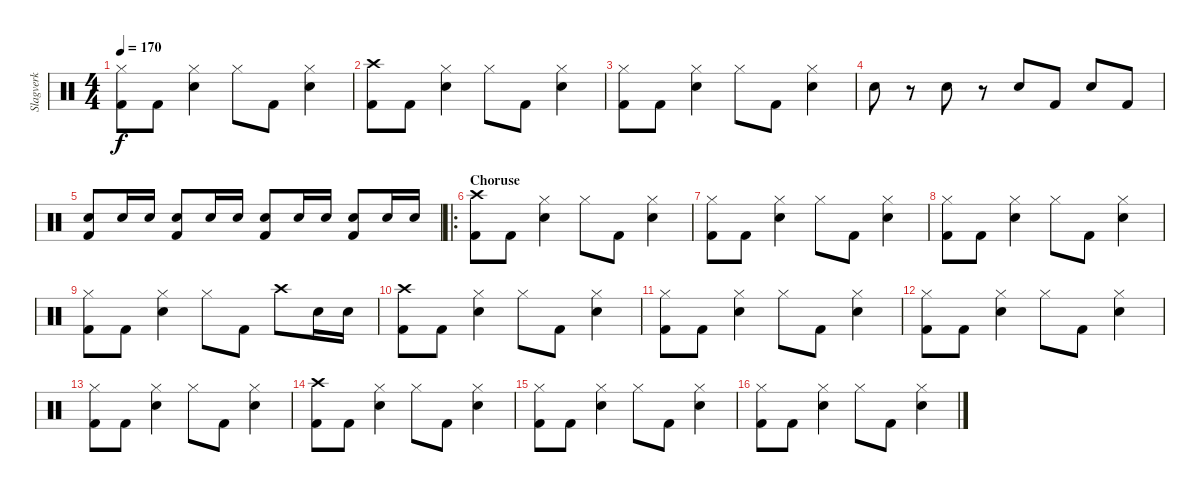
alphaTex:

\track ("Slagverk" "Slagverk") {instrument percussion}
\staff {score}
\articulation defaults
\ts (4 4)
\tempo 170
\clef neutral
\ks c
("Kick (hit) 2" "Hi-Hat (closed)").8{dy f} "Kick (hit) 2".8 ("Hi-Hat (closed)" "Snare (hit) 2").4 "Hi-Hat (closed)".8 "Kick (hit) 2".8 ("Hi-Hat (closed)" "Snare (hit) 2").4 |
("Kick (hit) 2" "Crash high (hit)").8 "Kick (hit) 2".8 ("Hi-Hat (closed)" "Snare (hit) 2").4 "Hi-Hat (closed)".8 "Kick (hit) 2".8 ("Hi-Hat (closed)" "Snare (hit) 2").4 |
("Kick (hit) 2" "Hi-Hat (closed)").8 "Kick (hit) 2".8 ("Hi-Hat (closed)" "Snare (hit) 2").4 "Hi-Hat (closed)".8 "Kick (hit) 2".8 ("Hi-Hat (closed)" "Snare (hit) 2").4 |
"Snare (hit) 2".8 r.8 "Snare (hit) 2".8 r.8 "Snare (hit) 2".8 "Kick (hit) 2".8 "Snare (hit) 2".8 "Kick (hit) 2".8 |
("Kick (hit) 2" "Snare (hit) 2").8 "Snare (hit) 2".16 "Snare (hit) 2".16 ("Kick (hit) 2" "Snare (hit) 2").8 "Snare (hit) 2".16 "Snare (hit) 2".16 ("Kick (hit) 2" "Snare (hit) 2").8 "Snare (hit) 2".16 "Snare (hit) 2".16 ("Kick (hit) 2" "Snare (hit) 2").8 "Snare (hit) 2".16 "Snare (hit) 2".16 |
\ro
\section ("" "Choruse")
("Kick (hit) 2" "Crash high (hit)").8 "Kick (hit) 2".8 ("Hi-Hat (closed)" "Snare (hit) 2").4 "Hi-Hat (closed)".8 "Kick (hit) 2".8 ("Hi-Hat (closed)" "Snare (hit) 2").4 |
("Kick (hit) 2" "Hi-Hat (closed)").8 "Kick (hit) 2".8 ("Hi-Hat (closed)" "Snare (hit) 2").4 "Hi-Hat (closed)".8 "Kick (hit) 2".8 ("Hi-Hat (closed)" "Snare (hit) 2").4 |
("Kick (hit) 2" "Hi-Hat (closed)").8 "Kick (hit) 2".8 ("Hi-Hat (closed)" "Snare (hit) 2").4 "Hi-Hat (closed)".8 "Kick (hit) 2".8 ("Hi-Hat (closed)" "Snare (hit) 2").4 |
("Kick (hit) 2" "Hi-Hat (closed)").8 "Kick (hit) 2".8 ("Hi-Hat (closed)" "Snare (hit) 2").4 "Hi-Hat (closed)".8 "Kick (hit) 2".8 "Crash high (hit)".8 "Snare (hit) 2".16 "Snare (hit) 2".16 |
("Kick (hit) 2" "Crash high (hit)").8 "Kick (hit) 2".8 ("Hi-Hat (closed)" "Snare (hit) 2").4 "Hi-Hat (closed)".8 "Kick (hit) 2".8 ("Hi-Hat (closed)" "Snare (hit) 2").4 |
("Kick (hit) 2" "Hi-Hat (closed)").8 "Kick (hit) 2".8 ("Hi-Hat (closed)" "Snare (hit) 2").4 "Hi-Hat (closed)".8 "Kick (hit) 2".8 ("Hi-Hat (closed)" "Snare (hit) 2").4 |
("Kick (hit) 2" "Hi-Hat (closed)").8 "Kick (hit) 2".8 ("Hi-Hat (closed)" "Snare (hit) 2").4 "Hi-Hat (closed)".8 "Kick (hit) 2".8 ("Hi-Hat (closed)" "Snare (hit) 2").4 |
("Kick (hit) 2" "Hi-Hat (closed)").8 "Kick (hit) 2".8 ("Hi-Hat (closed)" "Snare (hit) 2").4 "Hi-Hat (closed)".8 "Kick (hit) 2".8 ("Hi-Hat (closed)" "Snare (hit) 2").4 |
("Kick (hit) 2" "Crash high (hit)").8 "Kick (hit) 2".8 ("Hi-Hat (closed)" "Snare (hit) 2").4 "Hi-Hat (closed)".8 "Kick (hit) 2".8 ("Hi-Hat (closed)" "Snare (hit) 2").4 |
("Kick (hit) 2" "Hi-Hat (closed)").8 "Kick (hit) 2".8 ("Hi-Hat (closed)" "Snare (hit) 2").4 "Hi-Hat (closed)".8 "Kick (hit) 2".8 ("Hi-Hat (closed)" "Snare (hit) 2").4 |
("Kick (hit) 2" "Hi-Hat (closed)").8 "Kick (hit) 2".8 ("Hi-Hat (closed)" "Snare (hit) 2").4 "Hi-Hat (closed)".8 "Kick (hit) 2".8 ("Hi-Hat (closed)" "Snare (hit) 2").4
